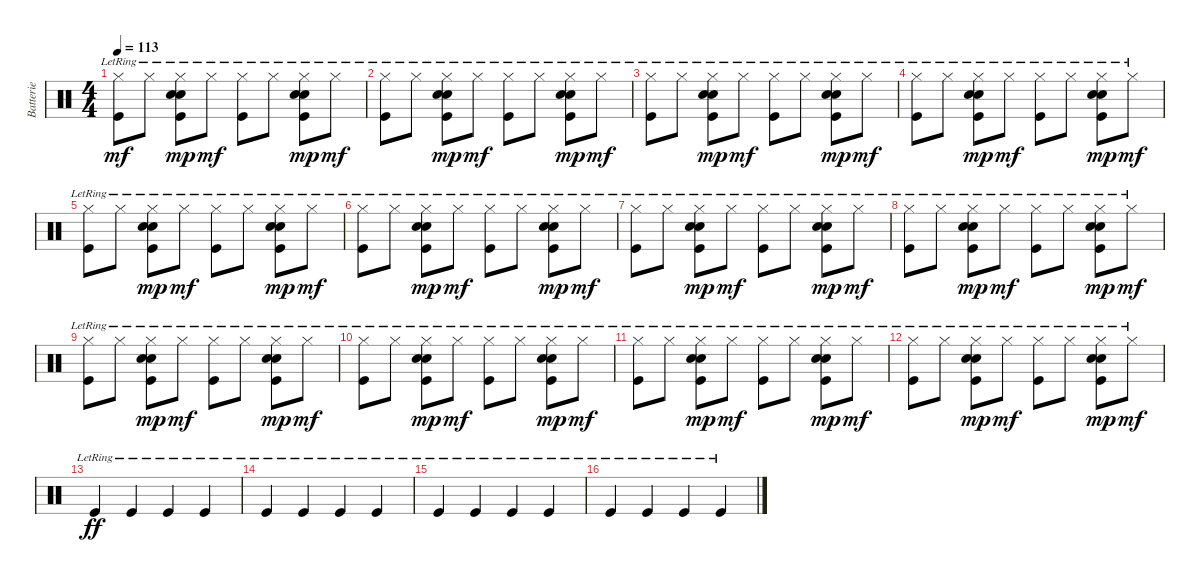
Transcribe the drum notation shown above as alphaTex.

\track ("Batterie" "Batterie") {instrument percussion}
\staff {score}
\articulation defaults
\ts (4 4)
\tempo 113
\clef neutral
\ks c
("Hi-Hat (closed)"{lr} "Kick (hit)"{lr}).8{dy mf} "Hi-Hat (closed)"{lr}.8 ("Hand Clap (hit)"{lr} "Hi-Hat (closed)"{lr} "Snare (hit) 2"{lr} "Kick (hit)"{lr}).8{dy mp} "Hi-Hat (closed)"{lr}.8{dy mf} ("Hi-Hat (closed)"{lr} "Kick (hit)"{lr}).8 "Hi-Hat (closed)"{lr}.8 ("Hand Clap (hit)"{lr} "Hi-Hat (closed)"{lr} "Snare (hit) 2"{lr} "Kick (hit)"{lr}).8{dy mp} "Hi-Hat (closed)"{lr}.8{dy mf} |
("Hi-Hat (closed)"{lr} "Kick (hit)"{lr}).8 "Hi-Hat (closed)"{lr}.8 ("Hand Clap (hit)"{lr} "Hi-Hat (closed)"{lr} "Snare (hit) 2"{lr} "Kick (hit)"{lr}).8{dy mp} "Hi-Hat (closed)"{lr}.8{dy mf} ("Hi-Hat (closed)"{lr} "Kick (hit)"{lr}).8 "Hi-Hat (closed)"{lr}.8 ("Hand Clap (hit)"{lr} "Hi-Hat (closed)"{lr} "Snare (hit) 2"{lr} "Kick (hit)"{lr}).8{dy mp} "Hi-Hat (closed)"{lr}.8{dy mf} |
("Hi-Hat (closed)"{lr} "Kick (hit)"{lr}).8 "Hi-Hat (closed)"{lr}.8 ("Hand Clap (hit)"{lr} "Hi-Hat (closed)"{lr} "Snare (hit) 2"{lr} "Kick (hit)"{lr}).8{dy mp} "Hi-Hat (closed)"{lr}.8{dy mf} ("Hi-Hat (closed)"{lr} "Kick (hit)"{lr}).8 "Hi-Hat (closed)"{lr}.8 ("Hand Clap (hit)"{lr} "Hi-Hat (closed)"{lr} "Snare (hit) 2"{lr} "Kick (hit)"{lr}).8{dy mp} "Hi-Hat (closed)"{lr}.8{dy mf} |
("Hi-Hat (closed)"{lr} "Kick (hit)"{lr}).8 "Hi-Hat (closed)"{lr}.8 ("Hand Clap (hit)"{lr} "Hi-Hat (closed)"{lr} "Snare (hit) 2"{lr} "Kick (hit)"{lr}).8{dy mp} "Hi-Hat (closed)"{lr}.8{dy mf} ("Hi-Hat (closed)"{lr} "Kick (hit)"{lr}).8 "Hi-Hat (closed)"{lr}.8 ("Hand Clap (hit)"{lr} "Hi-Hat (closed)"{lr} "Snare (hit) 2"{lr} "Kick (hit)"{lr}).8{dy mp} "Hi-Hat (closed)"{lr}.8{dy mf} |
("Hi-Hat (closed)"{lr} "Kick (hit)"{lr}).8 "Hi-Hat (closed)"{lr}.8 ("Hand Clap (hit)"{lr} "Hi-Hat (closed)"{lr} "Snare (hit) 2"{lr} "Kick (hit)"{lr}).8{dy mp} "Hi-Hat (closed)"{lr}.8{dy mf} ("Hi-Hat (closed)"{lr} "Kick (hit)"{lr}).8 "Hi-Hat (closed)"{lr}.8 ("Hand Clap (hit)"{lr} "Hi-Hat (closed)"{lr} "Snare (hit) 2"{lr} "Kick (hit)"{lr}).8{dy mp} "Hi-Hat (closed)"{lr}.8{dy mf} |
("Hi-Hat (closed)"{lr} "Kick (hit)"{lr}).8 "Hi-Hat (closed)"{lr}.8 ("Hand Clap (hit)"{lr} "Hi-Hat (closed)"{lr} "Snare (hit) 2"{lr} "Kick (hit)"{lr}).8{dy mp} "Hi-Hat (closed)"{lr}.8{dy mf} ("Hi-Hat (closed)"{lr} "Kick (hit)"{lr}).8 "Hi-Hat (closed)"{lr}.8 ("Hand Clap (hit)"{lr} "Hi-Hat (closed)"{lr} "Snare (hit) 2"{lr} "Kick (hit)"{lr}).8{dy mp} "Hi-Hat (closed)"{lr}.8{dy mf} |
("Hi-Hat (closed)"{lr} "Kick (hit)"{lr}).8 "Hi-Hat (closed)"{lr}.8 ("Hand Clap (hit)"{lr} "Hi-Hat (closed)"{lr} "Snare (hit) 2"{lr} "Kick (hit)"{lr}).8{dy mp} "Hi-Hat (closed)"{lr}.8{dy mf} ("Hi-Hat (closed)"{lr} "Kick (hit)"{lr}).8 "Hi-Hat (closed)"{lr}.8 ("Hand Clap (hit)"{lr} "Hi-Hat (closed)"{lr} "Snare (hit) 2"{lr} "Kick (hit)"{lr}).8{dy mp} "Hi-Hat (closed)"{lr}.8{dy mf} |
("Hi-Hat (closed)"{lr} "Kick (hit)"{lr}).8 "Hi-Hat (closed)"{lr}.8 ("Hand Clap (hit)"{lr} "Hi-Hat (closed)"{lr} "Snare (hit) 2"{lr} "Kick (hit)"{lr}).8{dy mp} "Hi-Hat (closed)"{lr}.8{dy mf} ("Hi-Hat (closed)"{lr} "Kick (hit)"{lr}).8 "Hi-Hat (closed)"{lr}.8 ("Hand Clap (hit)"{lr} "Hi-Hat (closed)"{lr} "Snare (hit) 2"{lr} "Kick (hit)"{lr}).8{dy mp} "Hi-Hat (closed)"{lr}.8{dy mf} |
("Hi-Hat (closed)"{lr} "Kick (hit)"{lr}).8 "Hi-Hat (closed)"{lr}.8 ("Hand Clap (hit)"{lr} "Hi-Hat (closed)"{lr} "Snare (hit) 2"{lr} "Kick (hit)"{lr}).8{dy mp} "Hi-Hat (closed)"{lr}.8{dy mf} ("Hi-Hat (closed)"{lr} "Kick (hit)"{lr}).8 "Hi-Hat (closed)"{lr}.8 ("Hand Clap (hit)"{lr} "Hi-Hat (closed)"{lr} "Snare (hit) 2"{lr} "Kick (hit)"{lr}).8{dy mp} "Hi-Hat (closed)"{lr}.8{dy mf} |
("Hi-Hat (closed)"{lr} "Kick (hit)"{lr}).8 "Hi-Hat (closed)"{lr}.8 ("Hand Clap (hit)"{lr} "Hi-Hat (closed)"{lr} "Snare (hit) 2"{lr} "Kick (hit)"{lr}).8{dy mp} "Hi-Hat (closed)"{lr}.8{dy mf} ("Hi-Hat (closed)"{lr} "Kick (hit)"{lr}).8 "Hi-Hat (closed)"{lr}.8 ("Hand Clap (hit)"{lr} "Hi-Hat (closed)"{lr} "Snare (hit) 2"{lr} "Kick (hit)"{lr}).8{dy mp} "Hi-Hat (closed)"{lr}.8{dy mf} |
("Hi-Hat (closed)"{lr} "Kick (hit)"{lr}).8 "Hi-Hat (closed)"{lr}.8 ("Hand Clap (hit)"{lr} "Hi-Hat (closed)"{lr} "Snare (hit) 2"{lr} "Kick (hit)"{lr}).8{dy mp} "Hi-Hat (closed)"{lr}.8{dy mf} ("Hi-Hat (closed)"{lr} "Kick (hit)"{lr}).8 "Hi-Hat (closed)"{lr}.8 ("Hand Clap (hit)"{lr} "Hi-Hat (closed)"{lr} "Snare (hit) 2"{lr} "Kick (hit)"{lr}).8{dy mp} "Hi-Hat (closed)"{lr}.8{dy mf} |
("Hi-Hat (closed)"{lr} "Kick (hit)"{lr}).8 "Hi-Hat (closed)"{lr}.8 ("Hand Clap (hit)"{lr} "Hi-Hat (closed)"{lr} "Snare (hit) 2"{lr} "Kick (hit)"{lr}).8{dy mp} "Hi-Hat (closed)"{lr}.8{dy mf} ("Hi-Hat (closed)"{lr} "Kick (hit)"{lr}).8 "Hi-Hat (closed)"{lr}.8 ("Hand Clap (hit)"{lr} "Hi-Hat (closed)"{lr} "Snare (hit) 2"{lr} "Kick (hit)"{lr}).8{dy mp} "Hi-Hat (closed)"{lr}.8{dy mf} |
"Kick (hit)"{lr}.4{dy ff} "Kick (hit)"{lr}.4 "Kick (hit)"{lr}.4 "Kick (hit)"{lr}.4 |
"Kick (hit)"{lr}.4 "Kick (hit)"{lr}.4 "Kick (hit)"{lr}.4 "Kick (hit)"{lr}.4 |
"Kick (hit)"{lr}.4 "Kick (hit)"{lr}.4 "Kick (hit)"{lr}.4 "Kick (hit)"{lr}.4 |
"Kick (hit)"{lr}.4 "Kick (hit)"{lr}.4 "Kick (hit)"{lr}.4 "Kick (hit)"{lr}.4
